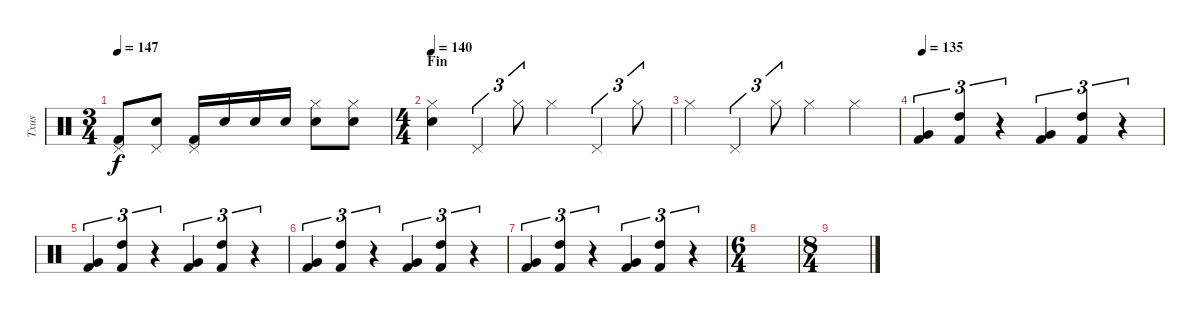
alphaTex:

\track ("Txus" "Txus") {instrument percussion}
\staff {score}
\articulation defaults
\ts (3 4)
\tempo 147
\clef neutral
\ks c
("Kick (hit) 2" "Pedal Hi-Hat (hit)").8{dy f} ("Electric Snare (hit)" "Pedal Hi-Hat (hit)").8 ("Kick (hit) 2" "Pedal Hi-Hat (hit)").16 "Electric Snare (hit)".16 "Electric Snare (hit)".16 "Electric Snare (hit)".16 ("Electric Snare (hit)" "Hi-Hat (closed)").8 ("Electric Snare (hit)" "Hi-Hat (closed)").8 |
\ts (4 4)
\section ("" "Fin")
\tempo 140
("Electric Snare (hit)" "Hi-Hat (closed)").4 "Pedal Hi-Hat (hit)".4{tu (3 2)} "Hi-Hat (closed)".8{tu (3 2)} "Hi-Hat (closed)".4 "Pedal Hi-Hat (hit)".4{tu (3 2)} "Hi-Hat (closed)".8{tu (3 2)} |
"Hi-Hat (closed)".4 "Pedal Hi-Hat (hit)".4{tu (3 2)} "Hi-Hat (closed)".8{tu (3 2)} "Hi-Hat (closed)".4 "Hi-Hat (closed)".4 |
\tempo 135
("Kick (hit) 2" "Very Low Tom (hit)").4{tu (3 2)} ("Kick (hit) 2" "High Tom (hit)").4{tu (3 2)} r.4{tu (3 2)} ("Kick (hit) 2" "Very Low Tom (hit)").4{tu (3 2)} ("Kick (hit) 2" "High Tom (hit)").4{tu (3 2)} r.4{tu (3 2)} |
("Kick (hit) 2" "Very Low Tom (hit)").4{tu (3 2)} ("Kick (hit) 2" "High Tom (hit)").4{tu (3 2)} r.4{tu (3 2)} ("Kick (hit) 2" "Very Low Tom (hit)").4{tu (3 2)} ("Kick (hit) 2" "High Tom (hit)").4{tu (3 2)} r.4{tu (3 2)} |
("Kick (hit) 2" "Very Low Tom (hit)").4{tu (3 2)} ("Kick (hit) 2" "High Tom (hit)").4{tu (3 2)} r.4{tu (3 2)} ("Kick (hit) 2" "Very Low Tom (hit)").4{tu (3 2)} ("Kick (hit) 2" "High Tom (hit)").4{tu (3 2)} r.4{tu (3 2)} |
("Kick (hit) 2" "Very Low Tom (hit)").4{tu (3 2)} ("Kick (hit) 2" "High Tom (hit)").4{tu (3 2)} r.4{tu (3 2)} ("Kick (hit) 2" "Very Low Tom (hit)").4{tu (3 2)} ("Kick (hit) 2" "High Tom (hit)").4{tu (3 2)} r.4{tu (3 2)} |
\ts (6 4)
|
\ts (8 4)
